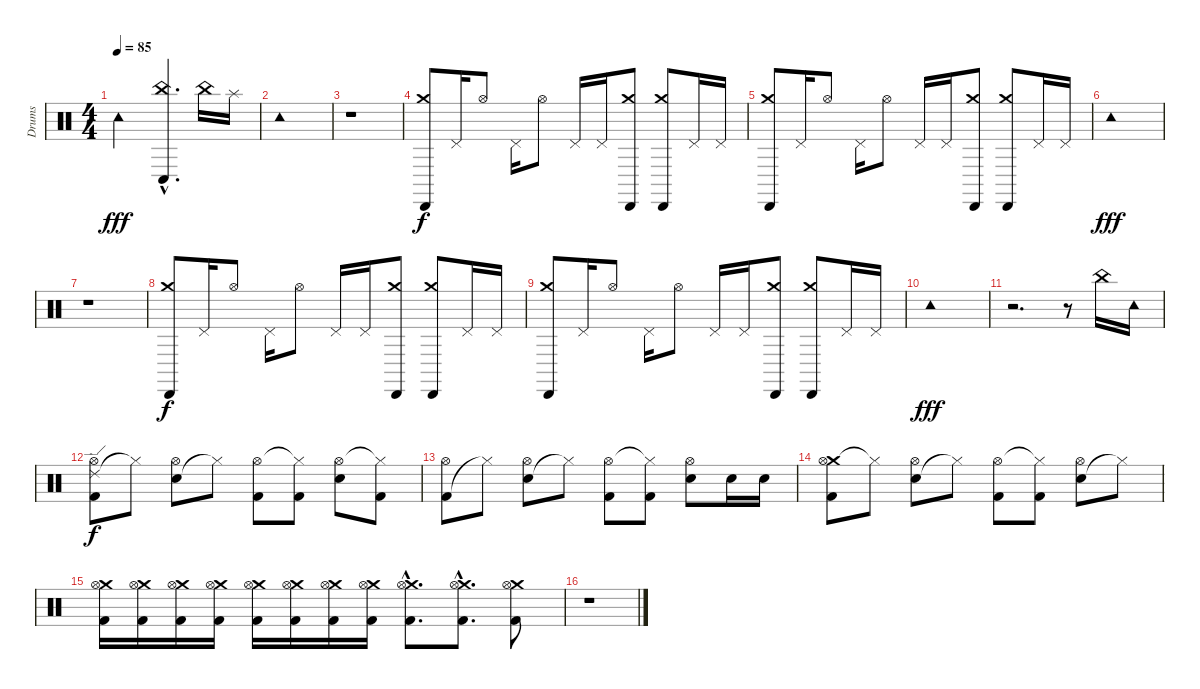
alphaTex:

\track ("Drums" "Drums") {instrument percussion}
\staff {score}
\articulation defaults
\ts (4 4)
\tempo 85
\clef neutral
\ks c "Tambourine (hit)".2{dy fff}
("China (hit)"{hac} "Conga low (hit)"{hac}).4{d} "China (hit)".16 "Splash (hit)".16 |
"Tambourine (hit)".1 |
r.1 |
("Crash medium (hit)" "Cabasa (hit)").8{dy f} "Pedal Hi-Hat (hit)".16 "Hi-Hat (open)".8 "Pedal Hi-Hat (hit)".16 "Hi-Hat (open)".8 "Pedal Hi-Hat (hit)".16 "Pedal Hi-Hat (hit)".16 ("Crash medium (hit)" "Cabasa (hit)").8 ("Crash medium (hit)" "Cabasa (hit)").8 "Pedal Hi-Hat (hit)".16 "Pedal Hi-Hat (hit)".16 |
("Crash medium (hit)" "Cabasa (hit)").8 "Pedal Hi-Hat (hit)".16 "Hi-Hat (open)".8 "Pedal Hi-Hat (hit)".16 "Hi-Hat (open)".8 "Pedal Hi-Hat (hit)".16 "Pedal Hi-Hat (hit)".16 ("Crash medium (hit)" "Cabasa (hit)").8 ("Crash medium (hit)" "Cabasa (hit)").8 "Pedal Hi-Hat (hit)".16 "Pedal Hi-Hat (hit)".16 |
"Tambourine (hit)".1{dy fff} |
r.1 |
("Crash medium (hit)" "Cabasa (hit)").8{dy f} "Pedal Hi-Hat (hit)".16 "Hi-Hat (open)".8 "Pedal Hi-Hat (hit)".16 "Hi-Hat (open)".8 "Pedal Hi-Hat (hit)".16 "Pedal Hi-Hat (hit)".16 ("Crash medium (hit)" "Cabasa (hit)").8 ("Crash medium (hit)" "Cabasa (hit)").8 "Pedal Hi-Hat (hit)".16 "Pedal Hi-Hat (hit)".16 |
("Crash medium (hit)" "Cabasa (hit)").8 "Pedal Hi-Hat (hit)".16 "Hi-Hat (open)".8 "Pedal Hi-Hat (hit)".16 "Hi-Hat (open)".8 "Pedal Hi-Hat (hit)".16 "Pedal Hi-Hat (hit)".16 ("Crash medium (hit)" "Cabasa (hit)").8 ("Crash medium (hit)" "Cabasa (hit)").8 "Pedal Hi-Hat (hit)".16 "Pedal Hi-Hat (hit)".16 |
"Tambourine (hit)".1{dy fff} |
r.2{d} r.8 "China (hit)".16 "Tambourine (hit)".16 |
("Ride (edge) 2" "Kick (hit) 2" "Hi-Hat (open)").8{dy f} "Hi-Hat (closed)"{t}.8 ("Electric Snare (hit)" "Hi-Hat (open)").8 "Hi-Hat (closed)"{t}.8 ("Kick (hit) 2" "Hi-Hat (open)").8 ("Kick (hit) 2" "Hi-Hat (closed)"{t}).8 ("Electric Snare (hit)" "Hi-Hat (open)").8 ("Kick (hit) 2" "Hi-Hat (closed)"{t}).8 |
("Kick (hit) 2" "Hi-Hat (open)").8 "Hi-Hat (closed)"{t}.8 ("Electric Snare (hit)" "Hi-Hat (open)").8 "Hi-Hat (closed)"{t}.8 ("Kick (hit) 2" "Hi-Hat (open)").8 ("Kick (hit) 2" "Hi-Hat (closed)"{t}).8 ("Electric Snare (hit)" "Hi-Hat (open)").8 "Electric Snare (hit)".16 "Electric Snare (hit)".16 |
("Crash medium (hit)" "Kick (hit) 2" "Hi-Hat (open)").8 "Hi-Hat (closed)"{t}.8 ("Electric Snare (hit)" "Hi-Hat (open)").8 "Hi-Hat (closed)"{t}.8 ("Kick (hit) 2" "Hi-Hat (open)").8 ("Kick (hit) 2" "Hi-Hat (closed)"{t}).8 ("Electric Snare (hit)" "Hi-Hat (open)").8 "Hi-Hat (closed)"{t}.8 |
("Crash medium (hit)" "Kick (hit) 2" "Hi-Hat (open)").16 ("Crash medium (hit)" "Kick (hit) 2" "Hi-Hat (open)").16 ("Crash medium (hit)" "Kick (hit) 2" "Hi-Hat (open)").16 ("Crash medium (hit)" "Kick (hit) 2" "Hi-Hat (open)").16 ("Crash medium (hit)" "Kick (hit) 2" "Hi-Hat (open)").16 ("Crash medium (hit)" "Kick (hit) 2" "Hi-Hat (open)").16 ("Crash medium (hit)" "Kick (hit) 2" "Hi-Hat (open)").16 ("Crash medium (hit)" "Kick (hit) 2" "Hi-Hat (open)").16 ("Crash medium (hit)"{hac} "Kick (hit) 2"{hac} "Hi-Hat (open)"{hac}).8{d} ("Crash medium (hit)"{hac} "Kick (hit) 2"{hac} "Hi-Hat (open)"{hac}).8{d} ("Crash medium (hit)" "Kick (hit) 2" "Hi-Hat (open)").8 |
r.1
